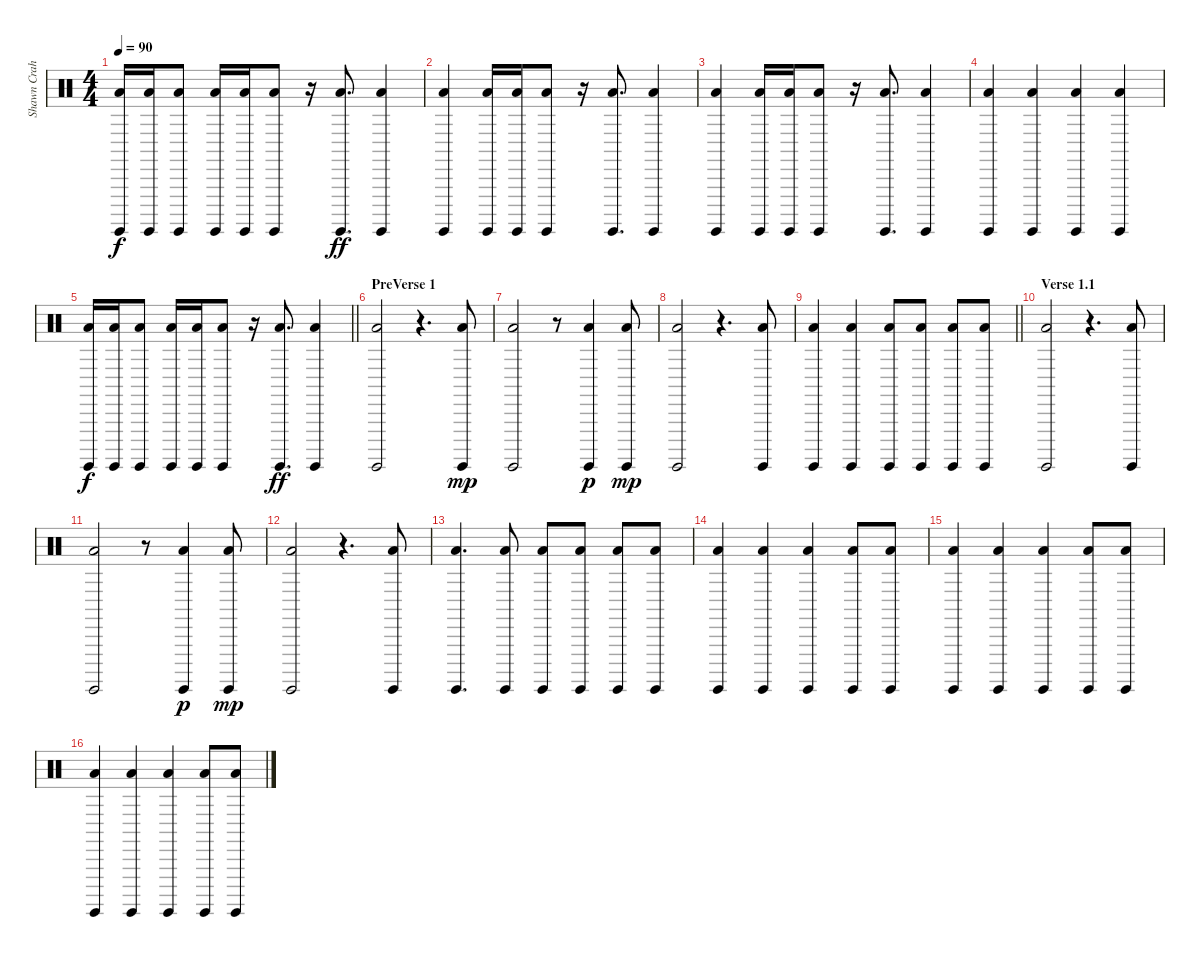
\track ("Shawn Crahan" "Shawn Crah") {instrument percussion}
\staff {score}
\articulation defaults
\ts (4 4)
\tempo 90
\clef neutral
\ks c
("Surdo (hit)" "Low Floor Tom (hit)").16{dy f} ("Surdo (hit)" "Low Floor Tom (hit)").16 ("Surdo (hit)" "Low Floor Tom (hit)").8 ("Surdo (hit)" "Low Floor Tom (hit)").16 ("Surdo (hit)" "Low Floor Tom (hit)").16 ("Surdo (hit)" "Low Floor Tom (hit)").8 r.16 ("Surdo (hit)" "Low Floor Tom (hit)").8{d dy ff} ("Surdo (hit)" "Low Floor Tom (hit)").4 |
("Surdo (hit)" "Low Floor Tom (hit)").4 ("Surdo (hit)" "Low Floor Tom (hit)").16 ("Surdo (hit)" "Low Floor Tom (hit)").16 ("Surdo (hit)" "Low Floor Tom (hit)").8 r.16 ("Surdo (hit)" "Low Floor Tom (hit)").8{d} ("Surdo (hit)" "Low Floor Tom (hit)").4 |
("Surdo (hit)" "Low Floor Tom (hit)").4 ("Surdo (hit)" "Low Floor Tom (hit)").16 ("Surdo (hit)" "Low Floor Tom (hit)").16 ("Surdo (hit)" "Low Floor Tom (hit)").8 r.16 ("Surdo (hit)" "Low Floor Tom (hit)").8{d} ("Surdo (hit)" "Low Floor Tom (hit)").4 |
("Surdo (hit)" "Low Floor Tom (hit)").4 ("Surdo (hit)" "Low Floor Tom (hit)").4 ("Surdo (hit)" "Low Floor Tom (hit)").4 ("Surdo (hit)" "Low Floor Tom (hit)").4 |
\barLineRight lightlight
("Surdo (hit)" "Low Floor Tom (hit)").16{dy f} ("Surdo (hit)" "Low Floor Tom (hit)").16 ("Surdo (hit)" "Low Floor Tom (hit)").8 ("Surdo (hit)" "Low Floor Tom (hit)").16 ("Surdo (hit)" "Low Floor Tom (hit)").16 ("Surdo (hit)" "Low Floor Tom (hit)").8 r.16 ("Surdo (hit)" "Low Floor Tom (hit)").8{d dy ff} ("Surdo (hit)" "Low Floor Tom (hit)").4 |
\section ("" "PreVerse 1")
("Surdo (hit)" "Low Floor Tom (hit)").2 r.4{d} ("Surdo (hit)" "Low Floor Tom (hit)").8{dy mp} |
("Surdo (hit)" "Low Floor Tom (hit)").2 r.8 ("Surdo (hit)" "Low Floor Tom (hit)").4{dy p} ("Surdo (hit)" "Low Floor Tom (hit)").8{dy mp} |
("Surdo (hit)" "Low Floor Tom (hit)").2 r.4{d} ("Surdo (hit)" "Low Floor Tom (hit)").8 |
\barLineRight lightlight
("Surdo (hit)" "Low Floor Tom (hit)").4 ("Surdo (hit)" "Low Floor Tom (hit)").4 ("Surdo (hit)" "Low Floor Tom (hit)").8 ("Surdo (hit)" "Low Floor Tom (hit)").8 ("Surdo (hit)" "Low Floor Tom (hit)").8 ("Surdo (hit)" "Low Floor Tom (hit)").8 |
\section ("" "Verse 1.1")
("Surdo (hit)" "Low Floor Tom (hit)").2 r.4{d} ("Surdo (hit)" "Low Floor Tom (hit)").8 |
("Surdo (hit)" "Low Floor Tom (hit)").2 r.8 ("Surdo (hit)" "Low Floor Tom (hit)").4{dy p} ("Surdo (hit)" "Low Floor Tom (hit)").8{dy mp} |
("Surdo (hit)" "Low Floor Tom (hit)").2 r.4{d} ("Surdo (hit)" "Low Floor Tom (hit)").8 |
("Surdo (hit)" "Low Floor Tom (hit)").4{d} ("Surdo (hit)" "Low Floor Tom (hit)").8 ("Surdo (hit)" "Low Floor Tom (hit)").8 ("Surdo (hit)" "Low Floor Tom (hit)").8 ("Surdo (hit)" "Low Floor Tom (hit)").8 ("Surdo (hit)" "Low Floor Tom (hit)").8 |
("Surdo (hit)" "Low Floor Tom (hit)").4 ("Surdo (hit)" "Low Floor Tom (hit)").4 ("Surdo (hit)" "Low Floor Tom (hit)").4 ("Surdo (hit)" "Low Floor Tom (hit)").8 ("Surdo (hit)" "Low Floor Tom (hit)").8 |
("Surdo (hit)" "Low Floor Tom (hit)").4 ("Surdo (hit)" "Low Floor Tom (hit)").4 ("Surdo (hit)" "Low Floor Tom (hit)").4 ("Surdo (hit)" "Low Floor Tom (hit)").8 ("Surdo (hit)" "Low Floor Tom (hit)").8 |
("Surdo (hit)" "Low Floor Tom (hit)").4 ("Surdo (hit)" "Low Floor Tom (hit)").4 ("Surdo (hit)" "Low Floor Tom (hit)").4 ("Surdo (hit)" "Low Floor Tom (hit)").8 ("Surdo (hit)" "Low Floor Tom (hit)").8
